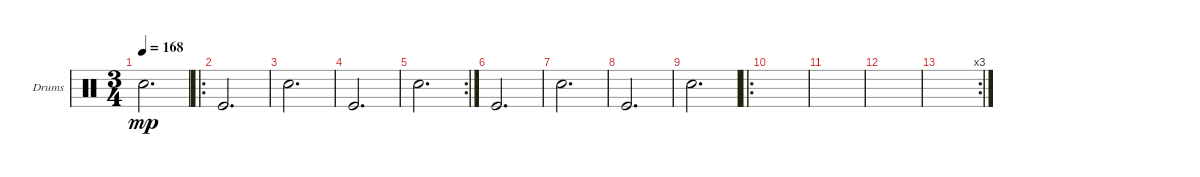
\defaultSystemsLayout 4
\bracketExtendMode groupsimilarinstruments
\firstSystemTrackNameOrientation horizontal
\otherSystemsTrackNameOrientation horizontal
\track ("Drumkit" "Drums") {instrument percussion}
\staff {score}
\articulation defaults
\ts (3 4)
\tempo 168
\clef neutral
\ks c "Snare (hit) 2".2{d dy mp}
|
\ro "Kick (hit)".2{d}
|
"Snare (hit) 2".2{d} |
"Kick (hit)".2{d} |
\rc 2 "Snare (hit) 2".2{d}
|
"Kick (hit)".2{d} |
"Snare (hit) 2".2{d} |
"Kick (hit)".2{d} |
"Snare (hit) 2".2{d} |
\ro
|
|
|
\rc 3
